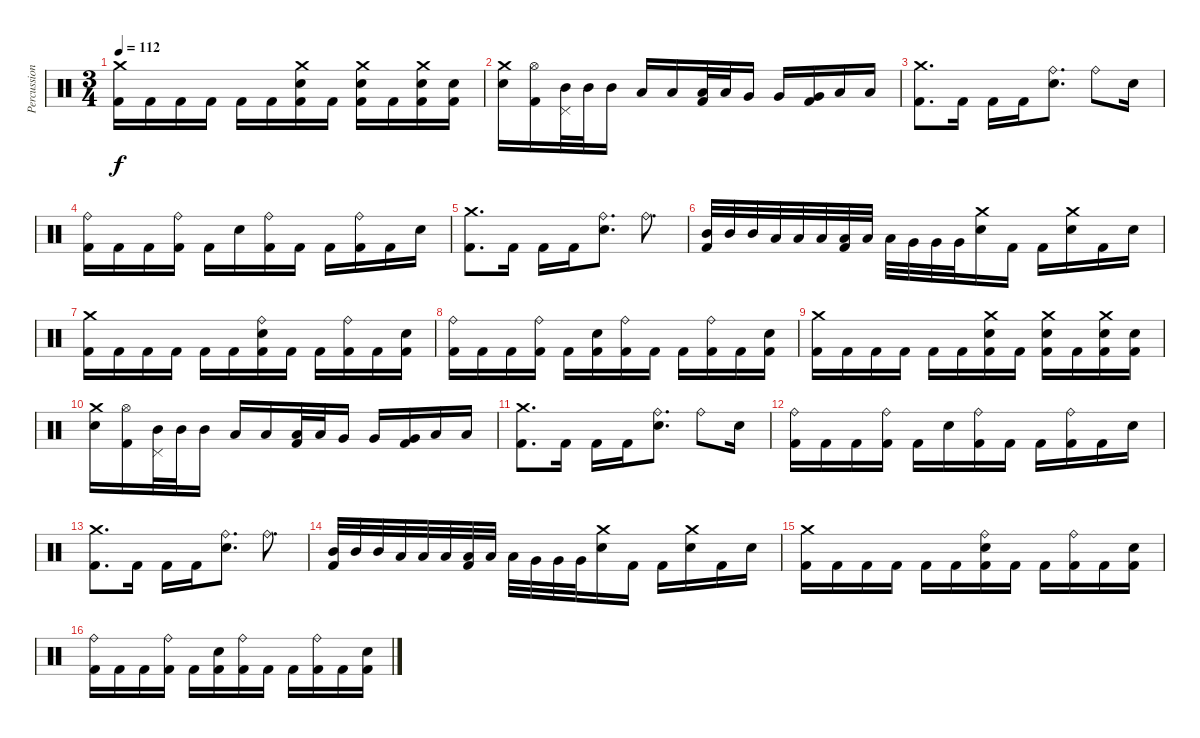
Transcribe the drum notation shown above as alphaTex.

\track ("Percussion" "Percussion") {instrument percussion}
\staff {score}
\articulation defaults
\ts (3 4)
\tempo 112
\clef neutral
\ks c
("Crash medium (hit)" "Kick (hit) 2").16{dy f} "Kick (hit) 2".16 "Kick (hit) 2".16 "Kick (hit) 2".16 "Kick (hit) 2".16 "Kick (hit) 2".16 ("Crash medium (hit)" "Electric Snare (hit)" "Kick (hit) 2").16 "Kick (hit) 2".16 ("Crash medium (hit)" "Electric Snare (hit)" "Kick (hit) 2").16 "Kick (hit) 2".16 ("Crash medium (hit)" "Electric Snare (hit)" "Kick (hit) 2").16 ("Electric Snare (hit)" "Kick (hit) 2").16 |
("Crash medium (hit)" "Electric Snare (hit)").16 ("Hi-Hat (open)" "Kick (hit) 2").16 ("Pedal Hi-Hat (hit)" "Mid Tom (hit)").32 "Mid Tom (hit)".32 "Mid Tom (hit)".16 "Low Tom (hit)".16 "Low Tom (hit)".16 ("Low Tom (hit)" "Kick (hit) 2").32 "Low Tom (hit)".32 "Very Low Tom (hit)".16 "Very Low Tom (hit)".16 ("Very Low Tom (hit)" "Kick (hit) 2").16 "Low Floor Tom (hit)".16 "Low Floor Tom (hit)".16 |
("Crash medium (hit)" "Kick (hit) 2").8{d} "Kick (hit) 2".16 "Kick (hit) 2".16 "Kick (hit) 2".16 ("Ride (bell)" "Electric Snare (hit)").8{d} "Ride (bell)".8 "Electric Snare (hit)".16 |
("Ride (bell)" "Kick (hit) 2").16 "Kick (hit) 2".16 "Kick (hit) 2".16 ("Ride (bell)" "Kick (hit) 2").16 "Kick (hit) 2".16 "Electric Snare (hit)".16 ("Ride (bell)" "Kick (hit) 2").16 "Kick (hit) 2".16 "Kick (hit) 2".16 ("Ride (bell)" "Kick (hit) 2").16 "Kick (hit) 2".16 "Electric Snare (hit)".16 |
("Crash medium (hit)" "Kick (hit) 2").8{d} "Kick (hit) 2".16 "Kick (hit) 2".16 "Kick (hit) 2".16 ("Ride (bell)" "Electric Snare (hit)").8{d} "Ride (bell)".8{d} |
("Mid Tom (hit)" "Kick (hit) 2").32 "Mid Tom (hit)".32 "Mid Tom (hit)".32 "Low Tom (hit)".32 "Low Tom (hit)".32 "Low Tom (hit)".32 ("Low Tom (hit)" "Kick (hit) 2").32 "Low Tom (hit)".32 "Low Tom (hit)".32 "Very Low Tom (hit)".32 "Very Low Tom (hit)".32 "Very Low Tom (hit)".32 ("Crash medium (hit)" "Electric Snare (hit)").16 "Kick (hit) 2".16 "Kick (hit) 2".16 ("Crash medium (hit)" "Electric Snare (hit)").16 "Kick (hit) 2".16 "Electric Snare (hit)".16 |
("Crash medium (hit)" "Kick (hit) 2").16 "Kick (hit) 2".16 "Kick (hit) 2".16 "Kick (hit) 2".16 "Kick (hit) 2".16 "Kick (hit) 2".16 ("Ride (bell)" "Electric Snare (hit)" "Kick (hit) 2").16 "Kick (hit) 2".16 "Kick (hit) 2".16 ("Ride (bell)" "Kick (hit) 2").16 "Kick (hit) 2".16 ("Electric Snare (hit)" "Kick (hit) 2").16 |
("Ride (bell)" "Kick (hit) 2").16 "Kick (hit) 2".16 "Kick (hit) 2".16 ("Ride (bell)" "Kick (hit) 2").16 "Kick (hit) 2".16 ("Electric Snare (hit)" "Kick (hit) 2").16 ("Ride (bell)" "Kick (hit) 2").16 "Kick (hit) 2".16 "Kick (hit) 2".16 ("Ride (bell)" "Kick (hit) 2").16 "Kick (hit) 2".16 ("Electric Snare (hit)" "Kick (hit) 2").16 |
("Crash medium (hit)" "Kick (hit) 2").16 "Kick (hit) 2".16 "Kick (hit) 2".16 "Kick (hit) 2".16 "Kick (hit) 2".16 "Kick (hit) 2".16 ("Crash medium (hit)" "Electric Snare (hit)" "Kick (hit) 2").16 "Kick (hit) 2".16 ("Crash medium (hit)" "Electric Snare (hit)" "Kick (hit) 2").16 "Kick (hit) 2".16 ("Crash medium (hit)" "Electric Snare (hit)" "Kick (hit) 2").16 ("Electric Snare (hit)" "Kick (hit) 2").16 |
("Crash medium (hit)" "Electric Snare (hit)").16 ("Hi-Hat (open)" "Kick (hit) 2").16 ("Pedal Hi-Hat (hit)" "Mid Tom (hit)").32 "Mid Tom (hit)".32 "Mid Tom (hit)".16 "Low Tom (hit)".16 "Low Tom (hit)".16 ("Low Tom (hit)" "Kick (hit) 2").32 "Low Tom (hit)".32 "Very Low Tom (hit)".16 "Very Low Tom (hit)".16 ("Very Low Tom (hit)" "Kick (hit) 2").16 "Low Floor Tom (hit)".16 "Low Floor Tom (hit)".16 |
("Crash medium (hit)" "Kick (hit) 2").8{d} "Kick (hit) 2".16 "Kick (hit) 2".16 "Kick (hit) 2".16 ("Ride (bell)" "Electric Snare (hit)").8{d} "Ride (bell)".8 "Electric Snare (hit)".16 |
("Ride (bell)" "Kick (hit) 2").16 "Kick (hit) 2".16 "Kick (hit) 2".16 ("Ride (bell)" "Kick (hit) 2").16 "Kick (hit) 2".16 "Electric Snare (hit)".16 ("Ride (bell)" "Kick (hit) 2").16 "Kick (hit) 2".16 "Kick (hit) 2".16 ("Ride (bell)" "Kick (hit) 2").16 "Kick (hit) 2".16 "Electric Snare (hit)".16 |
("Crash medium (hit)" "Kick (hit) 2").8{d} "Kick (hit) 2".16 "Kick (hit) 2".16 "Kick (hit) 2".16 ("Ride (bell)" "Electric Snare (hit)").8{d} "Ride (bell)".8{d} |
("Mid Tom (hit)" "Kick (hit) 2").32 "Mid Tom (hit)".32 "Mid Tom (hit)".32 "Low Tom (hit)".32 "Low Tom (hit)".32 "Low Tom (hit)".32 ("Low Tom (hit)" "Kick (hit) 2").32 "Low Tom (hit)".32 "Low Tom (hit)".32 "Very Low Tom (hit)".32 "Very Low Tom (hit)".32 "Very Low Tom (hit)".32 ("Crash medium (hit)" "Electric Snare (hit)").16 "Kick (hit) 2".16 "Kick (hit) 2".16 ("Crash medium (hit)" "Electric Snare (hit)").16 "Kick (hit) 2".16 "Electric Snare (hit)".16 |
("Crash medium (hit)" "Kick (hit) 2").16 "Kick (hit) 2".16 "Kick (hit) 2".16 "Kick (hit) 2".16 "Kick (hit) 2".16 "Kick (hit) 2".16 ("Ride (bell)" "Electric Snare (hit)" "Kick (hit) 2").16 "Kick (hit) 2".16 "Kick (hit) 2".16 ("Ride (bell)" "Kick (hit) 2").16 "Kick (hit) 2".16 ("Electric Snare (hit)" "Kick (hit) 2").16 |
("Ride (bell)" "Kick (hit) 2").16 "Kick (hit) 2".16 "Kick (hit) 2".16 ("Ride (bell)" "Kick (hit) 2").16 "Kick (hit) 2".16 ("Electric Snare (hit)" "Kick (hit) 2").16 ("Ride (bell)" "Kick (hit) 2").16 "Kick (hit) 2".16 "Kick (hit) 2".16 ("Ride (bell)" "Kick (hit) 2").16 "Kick (hit) 2".16 ("Electric Snare (hit)" "Kick (hit) 2").16
